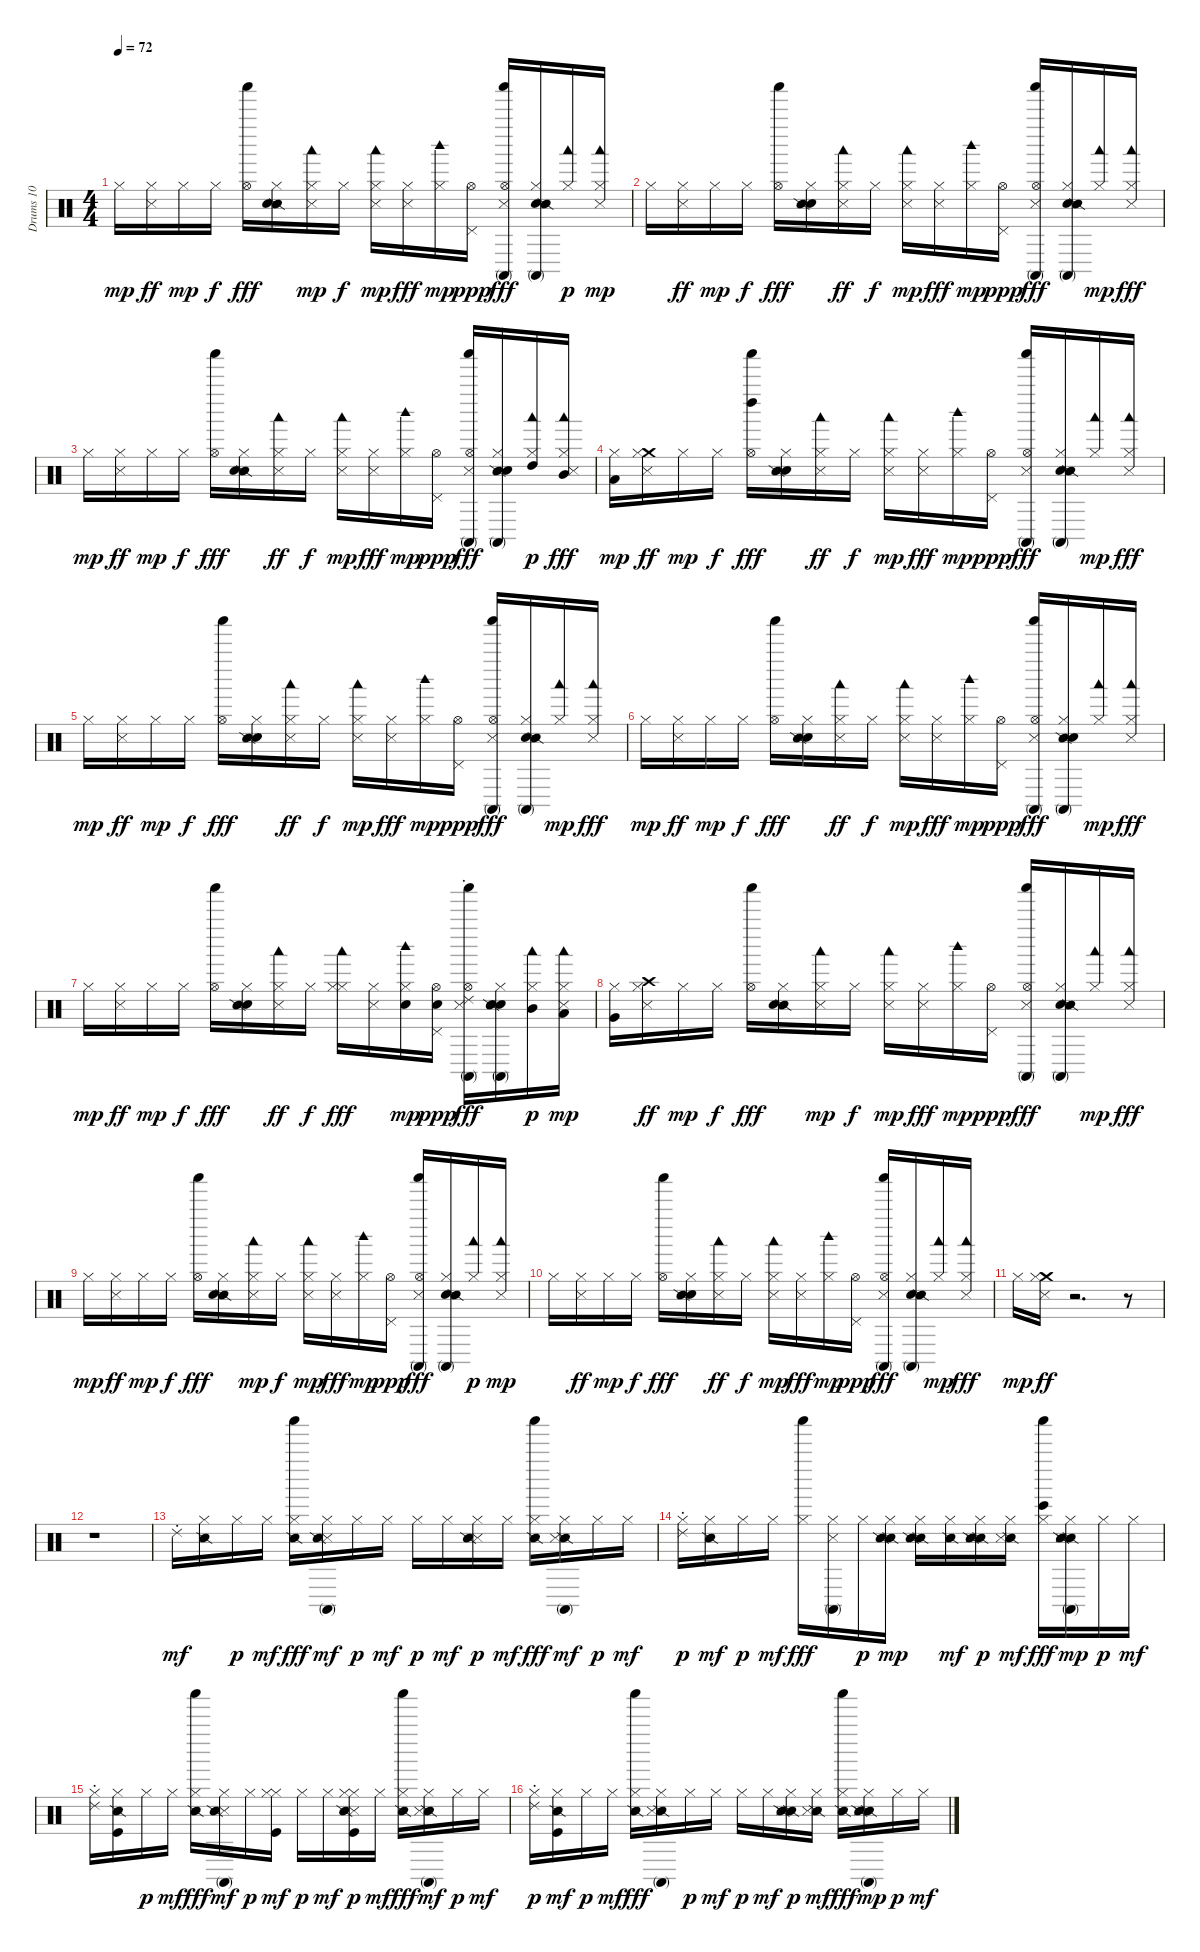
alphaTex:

\track ("Drums 10" "Drums 10") {instrument percussion}
\staff {score}
\articulation defaults
\ts (4 4)
\tempo 72
\clef neutral
\ks c "Hi-Hat (closed)".16{dy mp}
("Metronome (hit)" "Hi-Hat (closed)").16{dy ff} "Hi-Hat (closed)".16{dy mp} "Hi-Hat (closed)".16{dy f} ("Hi-Hat (open)" "Shaker (hit)").16{dy fff} ("Snare (side stick) 2" "Hi-Hat (closed)" "Metronome (bell)").16 ("Metronome (hit)" "Hi-Hat (closed)" "Woodblock low (hit)").16{dy mp} "Hi-Hat (closed)".16{dy f} ("Woodblock low (hit)" "Hi-Hat (closed)" "Metronome (hit)").16{dy mp} ("Hi-Hat (closed)" "Metronome (hit)").16{dy fff} ("Woodblock high (hit)" "Hi-Hat (closed)").16{dy mp} ("Hi-Hat (open)" "Pedal Hi-Hat (hit)").16{dy ppp} ("Conga high (mute)" "Hi-Hat (open)" "Metronome (hit)" "Shaker (hit)").16{dy fff} ("Metronome (bell)" "Snare (side stick) 2" "Hi-Hat (closed)" "Conga high (mute)").16 ("Hi-Hat (closed)" "Woodblock low (hit)").16{dy p} ("Metronome (hit)" "Hi-Hat (closed)" "Woodblock low (hit)").16{dy mp} |
"Hi-Hat (closed)".16 ("Metronome (hit)" "Hi-Hat (closed)").16{dy ff} "Hi-Hat (closed)".16{dy mp} "Hi-Hat (closed)".16{dy f} ("Hi-Hat (open)" "Shaker (hit)").16{dy fff} ("Metronome (bell)" "Hi-Hat (closed)" "Snare (side stick) 2").16 ("Woodblock low (hit)" "Hi-Hat (closed)" "Metronome (hit)").16{dy ff} "Hi-Hat (closed)".16{dy f} ("Woodblock low (hit)" "Hi-Hat (closed)" "Metronome (hit)").16{dy mp} ("Hi-Hat (closed)" "Metronome (hit)").16{dy fff} ("Hi-Hat (closed)" "Woodblock high (hit)").16{dy mp} ("Hi-Hat (open)" "Pedal Hi-Hat (hit)").16{dy ppp} ("Conga high (mute)" "Metronome (hit)" "Hi-Hat (open)" "Shaker (hit)").16{dy fff} ("Metronome (bell)" "Conga high (mute)" "Snare (side stick) 2" "Hi-Hat (closed)").16 ("Woodblock low (hit)" "Hi-Hat (closed)").16{dy mp} ("Woodblock low (hit)" "Metronome (hit)" "Hi-Hat (closed)").16{dy fff} |
"Hi-Hat (closed)".16{dy mp} ("Metronome (hit)" "Hi-Hat (closed)").16{dy ff} "Hi-Hat (closed)".16{dy mp} "Hi-Hat (closed)".16{dy f} ("Hi-Hat (open)" "Shaker (hit)").16{dy fff} ("Snare (side stick) 2" "Hi-Hat (closed)" "Metronome (bell)").16 ("Hi-Hat (closed)" "Metronome (hit)" "Woodblock low (hit)").16{dy ff} "Hi-Hat (closed)".16{dy f} ("Hi-Hat (closed)" "Metronome (hit)" "Woodblock low (hit)").16{dy mp} ("Metronome (hit)" "Hi-Hat (closed)").16{dy fff} ("Hi-Hat (closed)" "Woodblock high (hit)").16{dy mp} ("Hi-Hat (open)" "Pedal Hi-Hat (hit)").16{dy ppp} ("Conga high (mute)" "Metronome (hit)" "Hi-Hat (open)" "Shaker (hit)").16{dy fff} ("Snare (side stick) 2" "Metronome (bell)" "Conga high (mute)" "Hi-Hat (closed)").16 ("High Tom (hit)" "Hi-Hat (closed)" "Woodblock low (hit)").16{dy p} ("Mid Tom (hit)" "Hi-Hat (closed)" "Woodblock low (hit)" "Metronome (hit)").16{dy fff} |
("Hi-Hat (closed)" "Low Tom (hit)").16{dy mp} ("Crash medium (hit)" "Hi-Hat (closed)" "Metronome (hit)").16{dy ff} "Hi-Hat (closed)".16{dy mp} "Hi-Hat (closed)".16{dy f} ("Left Maraca (hit)" "Hi-Hat (open)" "Shaker (hit)").16{dy fff} ("Metronome (bell)" "Hi-Hat (closed)" "Snare (side stick) 2").16 ("Woodblock low (hit)" "Hi-Hat (closed)" "Metronome (hit)").16{dy ff} "Hi-Hat (closed)".16{dy f} ("Woodblock low (hit)" "Hi-Hat (closed)" "Metronome (hit)").16{dy mp} ("Hi-Hat (closed)" "Metronome (hit)").16{dy fff} ("Woodblock high (hit)" "Hi-Hat (closed)").16{dy mp} ("Hi-Hat (open)" "Pedal Hi-Hat (hit)").16{dy ppp} ("Hi-Hat (open)" "Metronome (hit)" "Conga high (mute)" "Shaker (hit)").16{dy fff} ("Metronome (bell)" "Conga high (mute)" "Hi-Hat (closed)" "Snare (side stick) 2").16 ("Woodblock low (hit)" "Hi-Hat (closed)").16{dy mp} ("Woodblock low (hit)" "Hi-Hat (closed)" "Metronome (hit)").16{dy fff} |
"Hi-Hat (closed)".16{dy mp} ("Hi-Hat (closed)" "Metronome (hit)").16{dy ff} "Hi-Hat (closed)".16{dy mp} "Hi-Hat (closed)".16{dy f} ("Hi-Hat (open)" "Shaker (hit)").16{dy fff} ("Metronome (bell)" "Snare (side stick) 2" "Hi-Hat (closed)").16 ("Woodblock low (hit)" "Hi-Hat (closed)" "Metronome (hit)").16{dy ff} "Hi-Hat (closed)".16{dy f} ("Woodblock low (hit)" "Hi-Hat (closed)" "Metronome (hit)").16{dy mp} ("Hi-Hat (closed)" "Metronome (hit)").16{dy fff} ("Woodblock high (hit)" "Hi-Hat (closed)").16{dy mp} ("Hi-Hat (open)" "Pedal Hi-Hat (hit)").16{dy ppp} ("Conga high (mute)" "Hi-Hat (open)" "Metronome (hit)" "Shaker (hit)").16{dy fff} ("Metronome (bell)" "Conga high (mute)" "Snare (side stick) 2" "Hi-Hat (closed)").16 ("Woodblock low (hit)" "Hi-Hat (closed)").16{dy mp} ("Woodblock low (hit)" "Hi-Hat (closed)" "Metronome (hit)").16{dy fff} |
"Hi-Hat (closed)".16{dy mp} ("Hi-Hat (closed)" "Metronome (hit)").16{dy ff} "Hi-Hat (closed)".16{dy mp} "Hi-Hat (closed)".16{dy f} ("Hi-Hat (open)" "Shaker (hit)").16{dy fff} ("Metronome (bell)" "Hi-Hat (closed)" "Snare (side stick) 2").16 ("Woodblock low (hit)" "Hi-Hat (closed)" "Metronome (hit)").16{dy ff} "Hi-Hat (closed)".16{dy f} ("Metronome (hit)" "Hi-Hat (closed)" "Woodblock low (hit)").16{dy mp} ("Metronome (hit)" "Hi-Hat (closed)").16{dy fff} ("Woodblock high (hit)" "Hi-Hat (closed)").16{dy mp} ("Hi-Hat (open)" "Pedal Hi-Hat (hit)").16{dy ppp} ("Hi-Hat (open)" "Conga high (mute)" "Metronome (hit)" "Shaker (hit)").16{dy fff} ("Snare (side stick) 2" "Metronome (bell)" "Hi-Hat (closed)" "Conga high (mute)").16 ("Hi-Hat (closed)" "Woodblock low (hit)").16{dy mp} ("Hi-Hat (closed)" "Woodblock low (hit)" "Metronome (hit)").16{dy fff} |
"Hi-Hat (closed)".16{dy mp} ("Metronome (hit)" "Hi-Hat (closed)").16{dy ff} "Hi-Hat (closed)".16{dy mp} "Hi-Hat (closed)".16{dy f} ("Hi-Hat (open)" "Shaker (hit)").16{dy fff} ("Metronome (bell)" "Hi-Hat (closed)" "Snare (side stick) 2").16 ("Hi-Hat (closed)" "Woodblock low (hit)" "Metronome (hit)").16{dy ff} "Hi-Hat (closed)".16{dy f} ("Hi-Hat (closed)" "Woodblock low (hit)" "Hi-Hat (closed)").16{dy fff} ("Metronome (hit)" "Hi-Hat (closed)").16 ("Electric Snare (hit)" "Hi-Hat (closed)" "Woodblock high (hit)").16{dy mp} ("Electric Snare (hit)" "Hi-Hat (open)" "Pedal Hi-Hat (hit)").16{dy ppp} ("Ride (choke) 2" "Metronome (hit)" "Conga high (mute)" "Hi-Hat (open)" "Shaker (hit)").16{dy fff} ("Electric Snare (hit)" "Conga high (mute)" "Metronome (bell)" "Snare (side stick) 2" "Hi-Hat (closed)").16 ("Mid Tom (hit)" "Hi-Hat (closed)" "Woodblock low (hit)").16{dy p} ("Low Tom (hit)" "Metronome (hit)" "Woodblock low (hit)" "Hi-Hat (closed)").16{dy mp} |
("Very Low Tom (hit)" "Hi-Hat (closed)").16 ("Crash high (hit)" "Hi-Hat (closed)" "Metronome (hit)").16{dy ff} "Hi-Hat (closed)".16{dy mp} "Hi-Hat (closed)".16{dy f} ("Hi-Hat (open)" "Shaker (hit)").16{dy fff} ("Hi-Hat (closed)" "Snare (side stick) 2" "Metronome (bell)").16 ("Woodblock low (hit)" "Metronome (hit)" "Hi-Hat (closed)").16{dy mp} "Hi-Hat (closed)".16{dy f} ("Hi-Hat (closed)" "Woodblock low (hit)" "Metronome (hit)").16{dy mp} ("Metronome (hit)" "Hi-Hat (closed)").16{dy fff} ("Woodblock high (hit)" "Hi-Hat (closed)").16{dy mp} ("Hi-Hat (open)" "Pedal Hi-Hat (hit)").16{dy ppp} ("Metronome (hit)" "Conga high (mute)" "Hi-Hat (open)" "Shaker (hit)").16{dy fff} ("Metronome (bell)" "Hi-Hat (closed)" "Conga high (mute)" "Snare (side stick) 2").16 ("Woodblock low (hit)" "Hi-Hat (closed)").16{dy mp} ("Woodblock low (hit)" "Metronome (hit)" "Hi-Hat (closed)").16{dy fff} |
"Hi-Hat (closed)".16{dy mp} ("Metronome (hit)" "Hi-Hat (closed)").16{dy ff} "Hi-Hat (closed)".16{dy mp} "Hi-Hat (closed)".16{dy f} ("Hi-Hat (open)" "Shaker (hit)").16{dy fff} ("Snare (side stick) 2" "Hi-Hat (closed)" "Metronome (bell)").16 ("Metronome (hit)" "Hi-Hat (closed)" "Woodblock low (hit)").16{dy mp} "Hi-Hat (closed)".16{dy f} ("Woodblock low (hit)" "Hi-Hat (closed)" "Metronome (hit)").16{dy mp} ("Hi-Hat (closed)" "Metronome (hit)").16{dy fff} ("Woodblock high (hit)" "Hi-Hat (closed)").16{dy mp} ("Hi-Hat (open)" "Pedal Hi-Hat (hit)").16{dy ppp} ("Conga high (mute)" "Hi-Hat (open)" "Metronome (hit)" "Shaker (hit)").16{dy fff} ("Metronome (bell)" "Snare (side stick) 2" "Hi-Hat (closed)" "Conga high (mute)").16 ("Hi-Hat (closed)" "Woodblock low (hit)").16{dy p} ("Metronome (hit)" "Hi-Hat (closed)" "Woodblock low (hit)").16{dy mp} |
"Hi-Hat (closed)".16 ("Metronome (hit)" "Hi-Hat (closed)").16{dy ff} "Hi-Hat (closed)".16{dy mp} "Hi-Hat (closed)".16{dy f} ("Hi-Hat (open)" "Shaker (hit)").16{dy fff} ("Metronome (bell)" "Hi-Hat (closed)" "Snare (side stick) 2").16 ("Woodblock low (hit)" "Hi-Hat (closed)" "Metronome (hit)").16{dy ff} "Hi-Hat (closed)".16{dy f} ("Woodblock low (hit)" "Hi-Hat (closed)" "Metronome (hit)").16{dy mp} ("Hi-Hat (closed)" "Metronome (hit)").16{dy fff} ("Hi-Hat (closed)" "Woodblock high (hit)").16{dy mp} ("Hi-Hat (open)" "Pedal Hi-Hat (hit)").16{dy ppp} ("Conga high (mute)" "Metronome (hit)" "Hi-Hat (open)" "Shaker (hit)").16{dy fff} ("Metronome (bell)" "Conga high (mute)" "Snare (side stick) 2" "Hi-Hat (closed)").16 ("Woodblock low (hit)" "Hi-Hat (closed)").16{dy mp} ("Woodblock low (hit)" "Metronome (hit)" "Hi-Hat (closed)").16{dy fff} |
"Hi-Hat (closed)".16{dy mp} ("Crash medium (hit)" "Metronome (hit)" "Hi-Hat (closed)").16{dy ff} r.2{d} r.8 |
r.1 |
"Ride (choke) 2".16{dy mf} ("Snare (side stick) 2" "Hi-Hat (closed)").16 "Hi-Hat (closed)".16{dy p} "Hi-Hat (closed)".16{dy mf} ("Snare (side stick) 2" "Hi-Hat (closed)" "Shaker (hit)").16{dy fff} ("Conga high (mute)" "Snare (side stick) 3" "Snare (side stick) 2" "Hi-Hat (closed)").16{dy mf} "Hi-Hat (closed)".16{dy p} "Hi-Hat (closed)".16{dy mf} "Hi-Hat (closed)".16{dy p} "Hi-Hat (closed)".16{dy mf} ("Snare (side stick) 3" "Snare (side stick) 2" "Hi-Hat (closed)").16{dy p} "Hi-Hat (closed)".16{dy mf} ("Snare (side stick) 2" "Hi-Hat (closed)" "Shaker (hit)").16{dy fff} ("Conga high (mute)" "Snare (side stick) 2" "Snare (side stick) 3" "Hi-Hat (closed)").16{dy mf} "Hi-Hat (closed)".16{dy p} "Hi-Hat (closed)".16{dy mf} |
("Ride (choke) 2" "Hi-Hat (closed)").16{dy p} ("Hi-Hat (closed)" "Snare (side stick) 2").16{dy mf} "Hi-Hat (closed)".16{dy p} "Hi-Hat (closed)".16{dy mf} ("Hi-Hat (closed)" "Shaker (hit)").16{dy fff} ("Conga high (mute)" "Hi-Hat (closed)" "Snare (side stick) 3").16 "Hi-Hat (closed)".16{dy p} ("Snare (side stick) 2" "Hi-Hat (closed)" "Snare (side stick) 2").16{dy mp} ("Snare (side stick) 2" "Hi-Hat (closed)" "Snare (side stick) 2").16 ("Snare (side stick) 2" "Hi-Hat (closed)").16{dy mf} ("Snare (side stick) 2" "Hi-Hat (closed)" "Snare (side stick) 2" "Snare (side stick) 3").16{dy p} ("Snare (side stick) 2" "Snare (side stick) 3" "Hi-Hat (closed)").16{dy mf} ("Bongo High (hit)" "Hi-Hat (closed)" "Shaker (hit)").16{dy fff} ("Snare (side stick) 2" "Conga high (mute)" "Hi-Hat (closed)" "Snare (side stick) 3" "Snare (side stick) 2").16{dy mp} "Hi-Hat (closed)".16{dy p} "Hi-Hat (closed)".16{dy mf} |
("Hi-Hat (closed)" "Ride (choke) 2").16 ("Kick (hit)" "Snare (side stick) 2" "Hi-Hat (closed)").16 "Hi-Hat (closed)".16{dy p} "Hi-Hat (closed)".16{dy mf} ("Snare (side stick) 2" "Hi-Hat (closed)" "Shaker (hit)").16{dy fff} ("Conga high (mute)" "Snare (side stick) 3" "Snare (side stick) 2" "Hi-Hat (closed)").16{dy mf} "Hi-Hat (closed)".16{dy p} ("Hi-Hat (closed)" "Kick (hit)" "Hi-Hat (closed)").16{dy mf} "Hi-Hat (closed)".16{dy p} "Hi-Hat (closed)".16{dy mf} ("Hi-Hat (closed)" "Kick (hit)" "Snare (side stick) 3" "Snare (side stick) 2" "Hi-Hat (closed)").16{dy p} "Hi-Hat (closed)".16{dy mf} ("Snare (side stick) 2" "Hi-Hat (closed)" "Shaker (hit)").16{dy fff} ("Conga high (mute)" "Snare (side stick) 2" "Snare (side stick) 3" "Hi-Hat (closed)").16{dy mf} "Hi-Hat (closed)".16{dy p} "Hi-Hat (closed)".16{dy mf} |
("Ride (choke) 2" "Hi-Hat (closed)").16{dy p} ("Kick (hit)" "Hi-Hat (closed)" "Snare (side stick) 2").16{dy mf} "Hi-Hat (closed)".16{dy p} "Hi-Hat (closed)".16{dy mf} ("Hi-Hat (closed)" "Snare (side stick) 2" "Shaker (hit)").16{dy fff} ("Conga high (mute)" "Hi-Hat (closed)" "Snare (side stick) 2" "Snare (side stick) 3").16 "Hi-Hat (closed)".16{dy p} "Hi-Hat (closed)".16{dy mf} "Hi-Hat (closed)".16{dy p} "Hi-Hat (closed)".16{dy mf} ("Snare (side stick) 2" "Hi-Hat (closed)" "Snare (side stick) 2" "Snare (side stick) 3").16{dy p} ("Snare (side stick) 2" "Snare (side stick) 3" "Hi-Hat (closed)").16{dy mf} ("Hi-Hat (closed)" "Snare (side stick) 2" "Shaker (hit)").16{dy fff} ("Snare (side stick) 2" "Conga high (mute)" "Hi-Hat (closed)" "Snare (side stick) 3" "Snare (side stick) 2").16{dy mp} "Hi-Hat (closed)".16{dy p} "Hi-Hat (closed)".16{dy mf}
